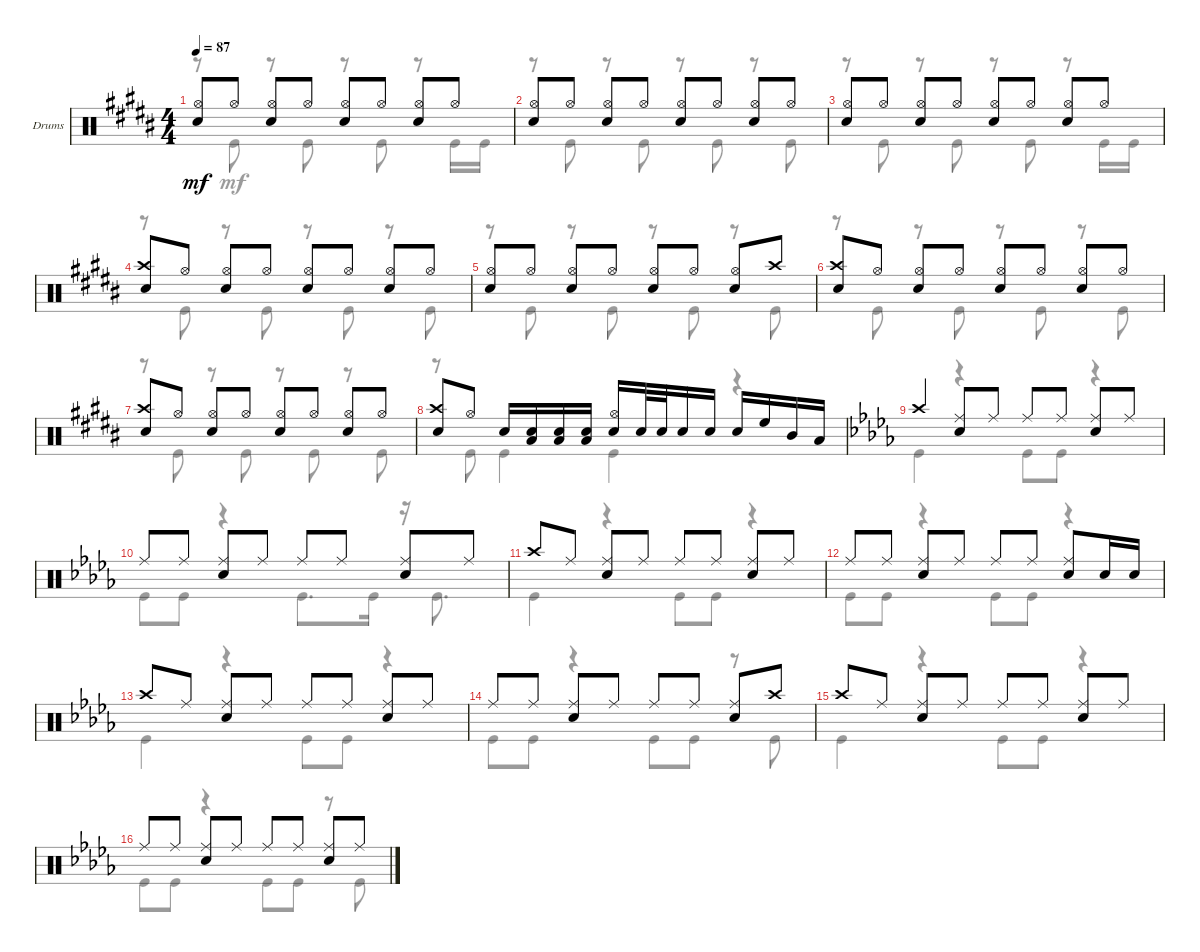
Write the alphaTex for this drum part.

\bracketExtendMode groupsimilarinstruments
\firstSystemTrackNameOrientation horizontal
\otherSystemsTrackNameOrientation horizontal
\track ("Drums" "Drums") {multiBarRest instrument percussion}
\staff {score}
\articulation defaults
\voice
\ts (4 4)
\tempo 87
\clef neutral
\ks b
("Hi-Hat (open)" "Snare (hit) 2").8{dy mf} "Hi-Hat (open)".8 ("Hi-Hat (open)" "Snare (hit) 2").8 "Hi-Hat (open)".8 ("Hi-Hat (open)" "Snare (hit) 2").8 "Hi-Hat (open)".8 ("Hi-Hat (open)" "Snare (hit) 2").8 "Hi-Hat (open)".8 |
("Hi-Hat (open)" "Snare (hit) 2").8 "Hi-Hat (open)".8 ("Hi-Hat (open)" "Snare (hit) 2").8 "Hi-Hat (open)".8 ("Hi-Hat (open)" "Snare (hit) 2").8 "Hi-Hat (open)".8 ("Hi-Hat (open)" "Snare (hit) 2").8 "Hi-Hat (open)".8 |
("Hi-Hat (open)" "Snare (hit) 2").8 "Hi-Hat (open)".8 ("Hi-Hat (open)" "Snare (hit) 2").8 "Hi-Hat (open)".8 ("Hi-Hat (open)" "Snare (hit) 2").8 "Hi-Hat (open)".8 ("Hi-Hat (open)" "Snare (hit) 2").8 "Hi-Hat (open)".8 |
("Snare (hit) 2" "Crash high (hit)").8 "Hi-Hat (open)".8 ("Hi-Hat (open)" "Snare (hit) 2").8 "Hi-Hat (open)".8 ("Hi-Hat (open)" "Snare (hit) 2").8 "Hi-Hat (open)".8 ("Hi-Hat (open)" "Snare (hit) 2").8 "Hi-Hat (open)".8 |
("Hi-Hat (open)" "Snare (hit) 2").8 "Hi-Hat (open)".8 ("Hi-Hat (open)" "Snare (hit) 2").8 "Hi-Hat (open)".8 ("Hi-Hat (open)" "Snare (hit) 2").8 "Hi-Hat (open)".8 ("Hi-Hat (open)" "Snare (hit) 2").8 "Crash high (hit)".8 |
("Snare (hit) 2" "Crash high (hit)").8 "Hi-Hat (open)".8 ("Hi-Hat (open)" "Snare (hit) 2").8 "Hi-Hat (open)".8 ("Hi-Hat (open)" "Snare (hit) 2").8 "Hi-Hat (open)".8 ("Hi-Hat (open)" "Snare (hit) 2").8 "Hi-Hat (open)".8 |
("Snare (hit) 2" "Crash high (hit)").8 "Hi-Hat (open)".8 ("Hi-Hat (open)" "Snare (hit) 2").8 "Hi-Hat (open)".8 ("Hi-Hat (open)" "Snare (hit) 2").8 "Hi-Hat (open)".8 ("Hi-Hat (open)" "Snare (hit) 2").8 "Hi-Hat (open)".8 |
("Crash high (hit)" "Snare (hit) 2").8 "Hi-Hat (open)".8 "Snare (hit) 2".16 ("Snare (hit) 2" "Low Tom (hit)").16 ("Low Tom (hit)" "Snare (hit) 2").16 ("Snare (hit) 2" "Low Tom (hit)").16 ("Snare (hit) 2" "Hi-Hat (open)").16 "Snare (hit) 2".32 "Snare (hit) 2".32 "Snare (hit) 2".16 "Snare (hit) 2".16 "Snare (hit) 2".16 "High Floor Tom (hit)".16 "Mid Tom (hit)".16 "Low Tom (hit)".16 |
\ks db "Crash high (hit)".4
("Ride (middle)" "Snare (hit) 2").8 "Ride (middle)".8 "Ride (middle)".8 "Ride (middle)".8 ("Ride (middle)" "Snare (hit) 2").8 "Ride (middle)".8 |
"Ride (middle)".8 "Ride (middle)".8 ("Ride (middle)" "Snare (hit) 2").8 "Ride (middle)".8 "Ride (middle)".8 "Ride (middle)".8 ("Ride (middle)" "Snare (hit) 2").8 "Ride (middle)".8 |
"Crash high (hit)".8 "Ride (middle)".8 ("Ride (middle)" "Snare (hit) 2").8 "Ride (middle)".8 "Ride (middle)".8 "Ride (middle)".8 ("Ride (middle)" "Snare (hit) 2").8 "Ride (middle)".8 |
"Ride (middle)".8 "Ride (middle)".8 ("Ride (middle)" "Snare (hit) 2").8 "Ride (middle)".8 "Ride (middle)".8 "Ride (middle)".8 ("Ride (middle)" "Snare (hit) 2").8 "Snare (hit) 2".16 "Snare (hit) 2".16 |
"Crash high (hit)".8 "Ride (middle)".8 ("Ride (middle)" "Snare (hit) 2").8 "Ride (middle)".8 "Ride (middle)".8 "Ride (middle)".8 ("Ride (middle)" "Snare (hit) 2").8 "Ride (middle)".8 |
"Ride (middle)".8 "Ride (middle)".8 ("Ride (middle)" "Snare (hit) 2").8 "Ride (middle)".8 "Ride (middle)".8 "Ride (middle)".8 ("Ride (middle)" "Snare (hit) 2").8 "Crash high (hit)".8 |
"Crash high (hit)".8 "Ride (middle)".8 ("Ride (middle)" "Snare (hit) 2").8 "Ride (middle)".8 "Ride (middle)".8 "Ride (middle)".8 ("Ride (middle)" "Snare (hit) 2").8 "Ride (middle)".8 |
"Ride (middle)".8 "Ride (middle)".8 ("Ride (middle)" "Snare (hit) 2").8 "Ride (middle)".8 "Ride (middle)".8 "Ride (middle)".8 ("Ride (middle)" "Snare (hit) 2").8 "Ride (middle)".8
\voice
\clef neutral
\ottava regular
\simile none
\ks b
r.8{dy mf} "Kick (hit)".8 r.8 "Kick (hit)".8 r.8 "Kick (hit)".8 r.8 "Kick (hit)".16 "Kick (hit)".16 |
r.8 "Kick (hit)".8 r.8 "Kick (hit)".8 r.8 "Kick (hit)".8 r.8 "Kick (hit)".8 |
r.8 "Kick (hit)".8 r.8 "Kick (hit)".8 r.8 "Kick (hit)".8 r.8 "Kick (hit)".16 "Kick (hit)".16 |
r.8 "Kick (hit)".8 r.8 "Kick (hit)".8 r.8 "Kick (hit)".8 r.8 "Kick (hit)".8 |
r.8 "Kick (hit)".8 r.8 "Kick (hit)".8 r.8 "Kick (hit)".8 r.8 "Kick (hit)".8 |
r.8 "Kick (hit)".8 r.8 "Kick (hit)".8 r.8 "Kick (hit)".8 r.8 "Kick (hit)".8 |
r.8 "Kick (hit)".8 r.8 "Kick (hit)".8 r.8 "Kick (hit)".8 r.8 "Kick (hit)".8 |
r.8 "Kick (hit)".8 "Kick (hit)".4 "Kick (hit)".4 r.4 |
\ks db "Kick (hit)".4
r.4 "Kick (hit)".8 "Kick (hit)".8 r.4 |
"Kick (hit)".8 "Kick (hit)".8 r.4 "Kick (hit)".8{d} "Kick (hit)".16 r.16 "Kick (hit)".8{d} |
"Kick (hit)".4 r.4 "Kick (hit)".8 "Kick (hit)".8 r.4 |
"Kick (hit)".8 "Kick (hit)".8 r.4 "Kick (hit)".8 "Kick (hit)".8 r.4 |
"Kick (hit)".4 r.4 "Kick (hit)".8 "Kick (hit)".8 r.4 |
"Kick (hit)".8 "Kick (hit)".8 r.4 "Kick (hit)".8 "Kick (hit)".8 r.8 "Kick (hit)".8 |
"Kick (hit)".4 r.4 "Kick (hit)".8 "Kick (hit)".8 r.4 |
"Kick (hit)".8 "Kick (hit)".8 r.4 "Kick (hit)".8 "Kick (hit)".8 r.8 "Kick (hit)".8
